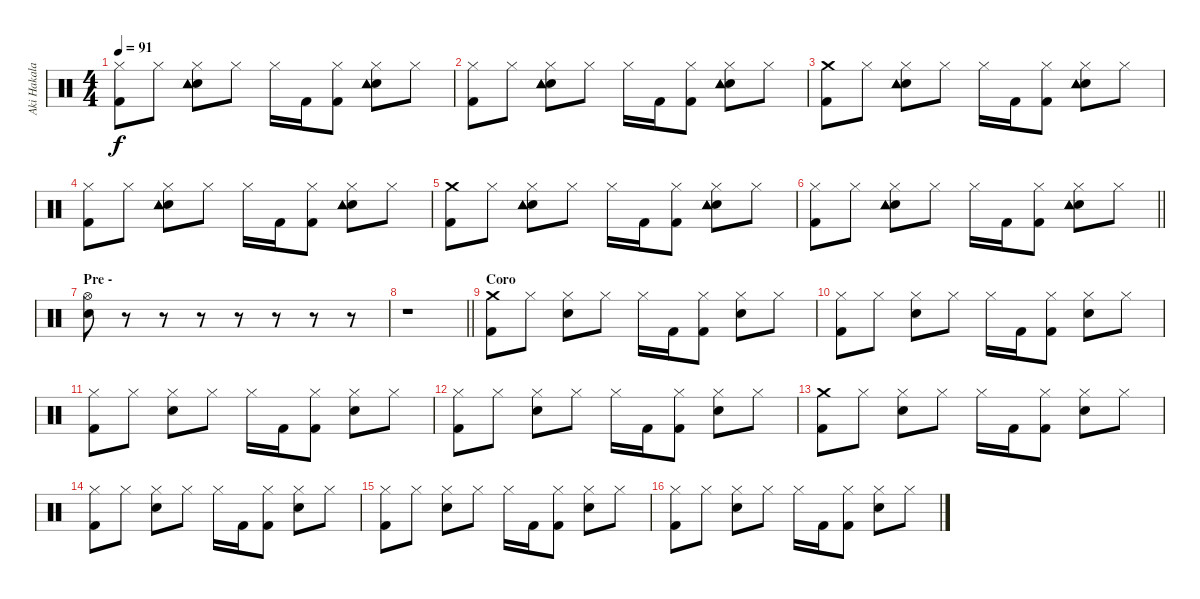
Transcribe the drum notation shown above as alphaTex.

\track ("Aki Hakala" "Aki Hakala") {instrument percussion}
\staff {score}
\articulation defaults
\ts (4 4)
\tempo 91
\clef neutral
\ks c
("Hi-Hat (closed)" "Kick (hit) 2").8{dy f} "Hi-Hat (closed)".8 ("Hi-Hat (closed)" "Electric Snare (hit)" "Tambourine (hit)" "Tambourine (hit)").8 "Hi-Hat (closed)".8 "Hi-Hat (closed)".16 "Kick (hit) 2".16 ("Hi-Hat (closed)" "Kick (hit) 2").8 ("Hi-Hat (closed)" "Electric Snare (hit)" "Tambourine (hit)" "Tambourine (hit)").8 "Hi-Hat (closed)".8 |
("Hi-Hat (closed)" "Kick (hit) 2").8 "Hi-Hat (closed)".8 ("Hi-Hat (closed)" "Electric Snare (hit)" "Tambourine (hit)" "Tambourine (hit)").8 "Hi-Hat (closed)".8 "Hi-Hat (closed)".16 "Kick (hit) 2".16 ("Hi-Hat (closed)" "Kick (hit) 2").8 ("Hi-Hat (closed)" "Electric Snare (hit)" "Tambourine (hit)" "Tambourine (hit)").8 "Hi-Hat (closed)".8 |
("Crash medium (hit)" "Kick (hit) 2").8 "Hi-Hat (closed)".8 ("Hi-Hat (closed)" "Electric Snare (hit)" "Tambourine (hit)" "Tambourine (hit)").8 "Hi-Hat (closed)".8 "Hi-Hat (closed)".16 "Kick (hit) 2".16 ("Hi-Hat (closed)" "Kick (hit) 2").8 ("Hi-Hat (closed)" "Electric Snare (hit)" "Tambourine (hit)" "Tambourine (hit)").8 "Hi-Hat (closed)".8 |
("Hi-Hat (closed)" "Kick (hit) 2").8 "Hi-Hat (closed)".8 ("Hi-Hat (closed)" "Electric Snare (hit)" "Tambourine (hit)" "Tambourine (hit)").8 "Hi-Hat (closed)".8 "Hi-Hat (closed)".16 "Kick (hit) 2".16 ("Hi-Hat (closed)" "Kick (hit) 2").8 ("Hi-Hat (closed)" "Electric Snare (hit)" "Tambourine (hit)" "Tambourine (hit)").8 "Hi-Hat (closed)".8 |
("Crash medium (hit)" "Kick (hit) 2").8 "Hi-Hat (closed)".8 ("Hi-Hat (closed)" "Electric Snare (hit)" "Tambourine (hit)" "Tambourine (hit)").8 "Hi-Hat (closed)".8 "Hi-Hat (closed)".16 "Kick (hit) 2".16 ("Hi-Hat (closed)" "Kick (hit) 2").8 ("Hi-Hat (closed)" "Electric Snare (hit)" "Tambourine (hit)" "Tambourine (hit)").8 "Hi-Hat (closed)".8 |
\barLineRight lightlight
("Hi-Hat (closed)" "Kick (hit) 2").8 "Hi-Hat (closed)".8 ("Hi-Hat (closed)" "Electric Snare (hit)" "Tambourine (hit)" "Tambourine (hit)").8 "Hi-Hat (closed)".8 "Hi-Hat (closed)".16 "Kick (hit) 2".16 ("Hi-Hat (closed)" "Kick (hit) 2").8 ("Hi-Hat (closed)" "Electric Snare (hit)" "Tambourine (hit)" "Tambourine (hit)").8 "Hi-Hat (closed)".8 |
\section ("" "Pre -")
("Hi-Hat (open)" "Electric Snare (hit)").8 r.8 r.8 r.8 r.8 r.8 r.8 r.8 |
\barLineRight lightlight
r.1 |
\section ("" "Coro")
("Crash medium (hit)" "Kick (hit) 2").8 "Hi-Hat (closed)".8 ("Hi-Hat (closed)" "Electric Snare (hit)").8 "Hi-Hat (closed)".8 "Hi-Hat (closed)".16 "Kick (hit) 2".16 ("Hi-Hat (closed)" "Kick (hit) 2").8 ("Hi-Hat (closed)" "Electric Snare (hit)").8 "Hi-Hat (closed)".8 |
("Hi-Hat (closed)" "Kick (hit) 2").8 "Hi-Hat (closed)".8 ("Hi-Hat (closed)" "Electric Snare (hit)").8 "Hi-Hat (closed)".8 "Hi-Hat (closed)".16 "Kick (hit) 2".16 ("Hi-Hat (closed)" "Kick (hit) 2").8 ("Hi-Hat (closed)" "Electric Snare (hit)").8 "Hi-Hat (closed)".8 |
("Hi-Hat (closed)" "Kick (hit) 2").8 "Hi-Hat (closed)".8 ("Hi-Hat (closed)" "Electric Snare (hit)").8 "Hi-Hat (closed)".8 "Hi-Hat (closed)".16 "Kick (hit) 2".16 ("Hi-Hat (closed)" "Kick (hit) 2").8 ("Hi-Hat (closed)" "Electric Snare (hit)").8 "Hi-Hat (closed)".8 |
("Hi-Hat (closed)" "Kick (hit) 2").8 "Hi-Hat (closed)".8 ("Hi-Hat (closed)" "Electric Snare (hit)").8 "Hi-Hat (closed)".8 "Hi-Hat (closed)".16 "Kick (hit) 2".16 ("Hi-Hat (closed)" "Kick (hit) 2").8 ("Hi-Hat (closed)" "Electric Snare (hit)").8 "Hi-Hat (closed)".8 |
("Crash medium (hit)" "Kick (hit) 2").8 "Hi-Hat (closed)".8 ("Hi-Hat (closed)" "Electric Snare (hit)").8 "Hi-Hat (closed)".8 "Hi-Hat (closed)".16 "Kick (hit) 2".16 ("Hi-Hat (closed)" "Kick (hit) 2").8 ("Hi-Hat (closed)" "Electric Snare (hit)").8 "Hi-Hat (closed)".8 |
("Hi-Hat (closed)" "Kick (hit) 2").8 "Hi-Hat (closed)".8 ("Hi-Hat (closed)" "Electric Snare (hit)").8 "Hi-Hat (closed)".8 "Hi-Hat (closed)".16 "Kick (hit) 2".16 ("Hi-Hat (closed)" "Kick (hit) 2").8 ("Hi-Hat (closed)" "Electric Snare (hit)").8 "Hi-Hat (closed)".8 |
("Hi-Hat (closed)" "Kick (hit) 2").8 "Hi-Hat (closed)".8 ("Hi-Hat (closed)" "Electric Snare (hit)").8 "Hi-Hat (closed)".8 "Hi-Hat (closed)".16 "Kick (hit) 2".16 ("Hi-Hat (closed)" "Kick (hit) 2").8 ("Hi-Hat (closed)" "Electric Snare (hit)").8 "Hi-Hat (closed)".8 |
("Hi-Hat (closed)" "Kick (hit) 2").8 "Hi-Hat (closed)".8 ("Hi-Hat (closed)" "Electric Snare (hit)").8 "Hi-Hat (closed)".8 "Hi-Hat (closed)".16 "Kick (hit) 2".16 ("Hi-Hat (closed)" "Kick (hit) 2").8 ("Hi-Hat (closed)" "Electric Snare (hit)").8 "Hi-Hat (closed)".8
